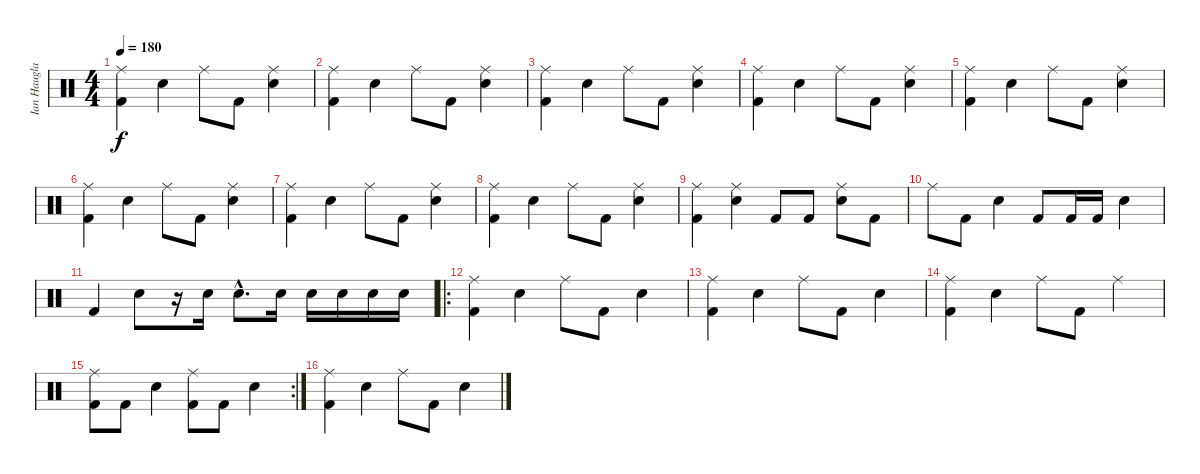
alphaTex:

\track ("Ian Haugland drums" "Ian Haugla") {instrument percussion}
\staff {score}
\articulation defaults
\ts (4 4)
\tempo 180
\clef neutral
\ks c
("Ride (middle)" "Kick (hit) 2").4{dy f} "Snare (hit) 2".4 "Ride (middle)".8 "Kick (hit) 2".8 ("Ride (middle)" "Snare (hit) 2").4 |
("Ride (middle)" "Kick (hit) 2").4 "Snare (hit) 2".4 "Ride (middle)".8 "Kick (hit) 2".8 ("Ride (middle)" "Snare (hit) 2").4 |
("Ride (middle)" "Kick (hit) 2").4 "Snare (hit) 2".4 "Ride (middle)".8 "Kick (hit) 2".8 ("Ride (middle)" "Snare (hit) 2").4 |
("Ride (middle)" "Kick (hit) 2").4 "Snare (hit) 2".4 "Ride (middle)".8 "Kick (hit) 2".8 ("Ride (middle)" "Snare (hit) 2").4 |
("Ride (middle)" "Kick (hit) 2").4 "Snare (hit) 2".4 "Ride (middle)".8 "Kick (hit) 2".8 ("Ride (middle)" "Snare (hit) 2").4 |
("Ride (middle)" "Kick (hit) 2").4 "Snare (hit) 2".4 "Ride (middle)".8 "Kick (hit) 2".8 ("Ride (middle)" "Snare (hit) 2").4 |
("Ride (middle)" "Kick (hit) 2").4 "Snare (hit) 2".4 "Ride (middle)".8 "Kick (hit) 2".8 ("Ride (middle)" "Snare (hit) 2").4 |
("Ride (middle)" "Kick (hit) 2").4 "Snare (hit) 2".4 "Ride (middle)".8 "Kick (hit) 2".8 ("Ride (middle)" "Snare (hit) 2").4 |
("Ride (middle)" "Kick (hit) 2").4 ("Ride (middle)" "Snare (hit) 2").4 "Kick (hit) 2".8 "Kick (hit) 2".8 ("Ride (middle)" "Snare (hit) 2").8 "Kick (hit) 2".8 |
"Ride (middle)".8 "Kick (hit) 2".8 "Snare (hit) 2".4 "Kick (hit) 2".8 "Kick (hit) 2".16 "Kick (hit) 2".16 "Snare (hit) 2".4 |
"Kick (hit) 2".4 "Snare (hit) 2".8 r.16 "Snare (hit) 2".16 "Snare (hit) 2"{hac}.8{d} "Snare (hit) 2".16 "Snare (hit) 2".16 "Snare (hit) 2".16 "Snare (hit) 2".16 "Snare (hit) 2".16 |
\ro
("Ride (middle)" "Kick (hit) 2").4 "Snare (hit) 2".4 "Ride (middle)".8 "Kick (hit) 2".8 "Snare (hit) 2".4 |
("Ride (middle)" "Kick (hit) 2").4 "Snare (hit) 2".4 "Ride (middle)".8 "Kick (hit) 2".8 "Snare (hit) 2".4 |
("Ride (middle)" "Kick (hit) 2").4 "Snare (hit) 2".4 "Ride (middle)".8 "Kick (hit) 2".8 "Ride (middle)".4 |
\rc 2
("Ride (middle)" "Kick (hit) 2").8 "Kick (hit) 2".8 "Snare (hit) 2".4 ("Ride (middle)" "Kick (hit) 2").8 "Kick (hit) 2".8 "Snare (hit) 2".4 |
("Ride (middle)" "Kick (hit) 2").4 "Snare (hit) 2".4 "Ride (middle)".8 "Kick (hit) 2".8 "Snare (hit) 2".4
